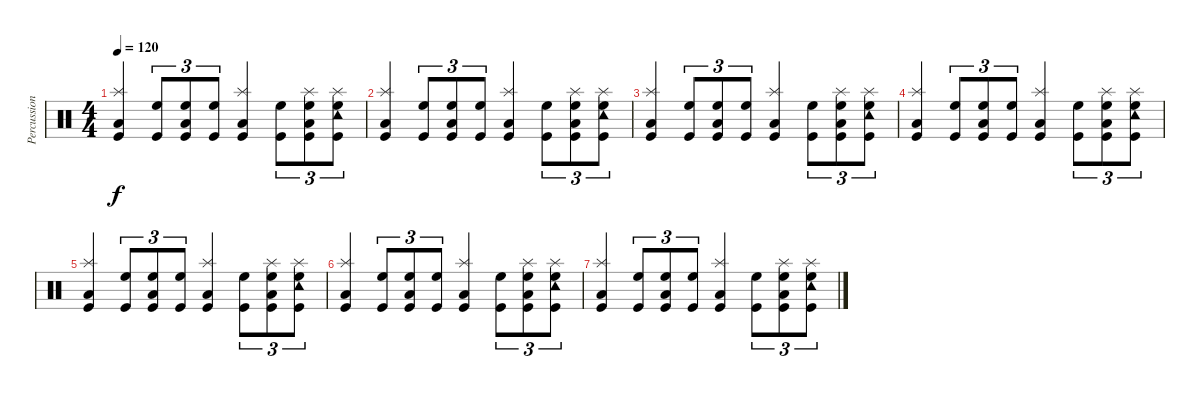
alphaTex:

\track ("Percussion" "Percussion") {instrument percussion}
\staff {score}
\articulation defaults
\ts (4 4)
\tempo 120
\clef neutral
\ks c
("Low Tom (hit)" "Splash (hit)" "Kick (hit)").4{dy f} ("High Floor Tom (hit)" "Kick (hit)").8{tu (3 2)} ("Low Tom (hit)" "High Floor Tom (hit)" "Kick (hit)").8{tu (3 2)} ("High Floor Tom (hit)" "Kick (hit)").8{tu (3 2)} ("Splash (hit)" "Low Tom (hit)" "Kick (hit)").4 ("High Floor Tom (hit)" "Kick (hit)").8{tu (3 2)} ("Splash (hit)" "Low Tom (hit)" "High Floor Tom (hit)" "Kick (hit)").8{tu (3 2)} ("Tambourine (hit)" "High Floor Tom (hit)" "Splash (hit)" "Kick (hit)").8{tu (3 2)} |
("Low Tom (hit)" "Splash (hit)" "Kick (hit)").4 ("High Floor Tom (hit)" "Kick (hit)").8{tu (3 2)} ("Low Tom (hit)" "High Floor Tom (hit)" "Kick (hit)").8{tu (3 2)} ("High Floor Tom (hit)" "Kick (hit)").8{tu (3 2)} ("Splash (hit)" "Low Tom (hit)" "Kick (hit)").4 ("High Floor Tom (hit)" "Kick (hit)").8{tu (3 2)} ("Splash (hit)" "Low Tom (hit)" "High Floor Tom (hit)" "Kick (hit)").8{tu (3 2)} ("Tambourine (hit)" "High Floor Tom (hit)" "Splash (hit)" "Kick (hit)").8{tu (3 2)} |
("Low Tom (hit)" "Splash (hit)" "Kick (hit)").4 ("High Floor Tom (hit)" "Kick (hit)").8{tu (3 2)} ("Low Tom (hit)" "High Floor Tom (hit)" "Kick (hit)").8{tu (3 2)} ("High Floor Tom (hit)" "Kick (hit)").8{tu (3 2)} ("Splash (hit)" "Low Tom (hit)" "Kick (hit)").4 ("High Floor Tom (hit)" "Kick (hit)").8{tu (3 2)} ("Splash (hit)" "Low Tom (hit)" "High Floor Tom (hit)" "Kick (hit)").8{tu (3 2)} ("Tambourine (hit)" "High Floor Tom (hit)" "Splash (hit)" "Kick (hit)").8{tu (3 2)} |
("Low Tom (hit)" "Splash (hit)" "Kick (hit)").4 ("High Floor Tom (hit)" "Kick (hit)").8{tu (3 2)} ("Low Tom (hit)" "High Floor Tom (hit)" "Kick (hit)").8{tu (3 2)} ("High Floor Tom (hit)" "Kick (hit)").8{tu (3 2)} ("Splash (hit)" "Low Tom (hit)" "Kick (hit)").4 ("High Floor Tom (hit)" "Kick (hit)").8{tu (3 2)} ("Splash (hit)" "Low Tom (hit)" "High Floor Tom (hit)" "Kick (hit)").8{tu (3 2)} ("Tambourine (hit)" "High Floor Tom (hit)" "Splash (hit)" "Kick (hit)").8{tu (3 2)} |
("Low Tom (hit)" "Splash (hit)" "Kick (hit)").4 ("High Floor Tom (hit)" "Kick (hit)").8{tu (3 2)} ("Low Tom (hit)" "High Floor Tom (hit)" "Kick (hit)").8{tu (3 2)} ("High Floor Tom (hit)" "Kick (hit)").8{tu (3 2)} ("Splash (hit)" "Low Tom (hit)" "Kick (hit)").4 ("High Floor Tom (hit)" "Kick (hit)").8{tu (3 2)} ("Splash (hit)" "Low Tom (hit)" "High Floor Tom (hit)" "Kick (hit)").8{tu (3 2)} ("Tambourine (hit)" "High Floor Tom (hit)" "Splash (hit)" "Kick (hit)").8{tu (3 2)} |
("Low Tom (hit)" "Splash (hit)" "Kick (hit)").4 ("High Floor Tom (hit)" "Kick (hit)").8{tu (3 2)} ("Low Tom (hit)" "High Floor Tom (hit)" "Kick (hit)").8{tu (3 2)} ("High Floor Tom (hit)" "Kick (hit)").8{tu (3 2)} ("Splash (hit)" "Low Tom (hit)" "Kick (hit)").4 ("High Floor Tom (hit)" "Kick (hit)").8{tu (3 2)} ("Splash (hit)" "Low Tom (hit)" "High Floor Tom (hit)" "Kick (hit)").8{tu (3 2)} ("Tambourine (hit)" "High Floor Tom (hit)" "Splash (hit)" "Kick (hit)").8{tu (3 2)} |
("Low Tom (hit)" "Splash (hit)" "Kick (hit)").4 ("High Floor Tom (hit)" "Kick (hit)").8{tu (3 2)} ("Low Tom (hit)" "High Floor Tom (hit)" "Kick (hit)").8{tu (3 2)} ("High Floor Tom (hit)" "Kick (hit)").8{tu (3 2)} ("Splash (hit)" "Low Tom (hit)" "Kick (hit)").4 ("High Floor Tom (hit)" "Kick (hit)").8{tu (3 2)} ("Splash (hit)" "Low Tom (hit)" "High Floor Tom (hit)" "Kick (hit)").8{tu (3 2)} ("Tambourine (hit)" "High Floor Tom (hit)" "Splash (hit)" "Kick (hit)").8{tu (3 2)}
